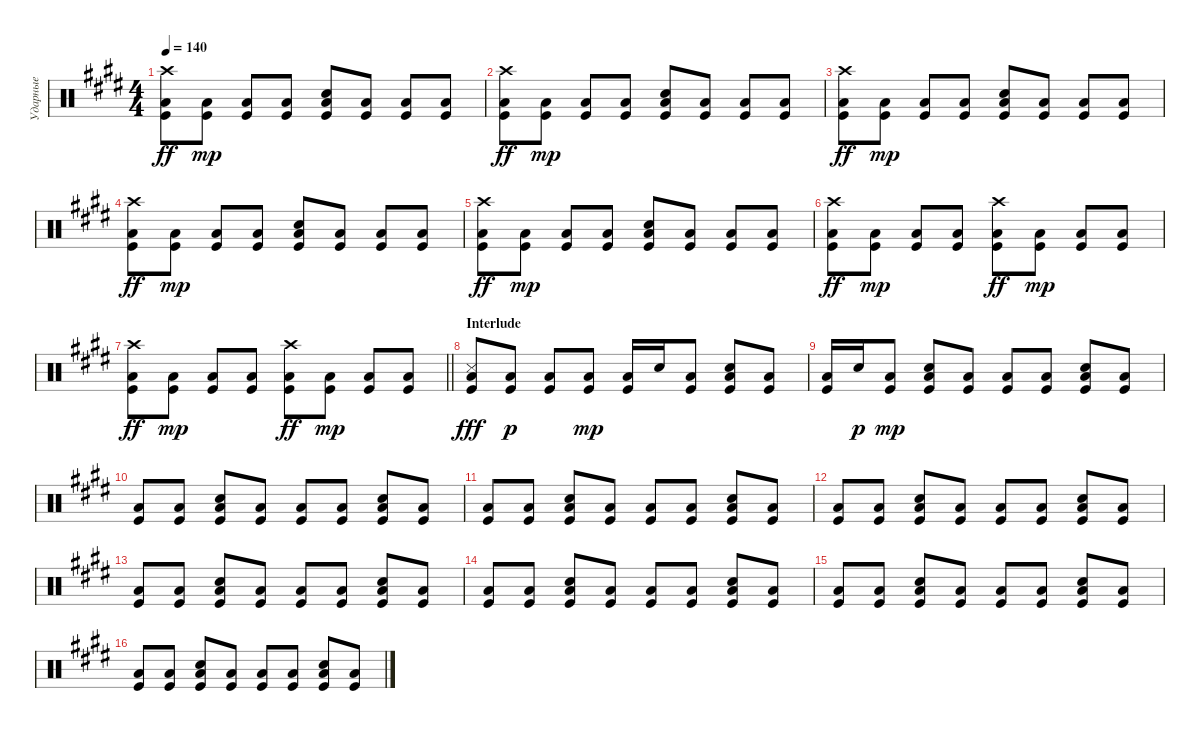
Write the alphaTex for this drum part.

\track ("Ударные" "Ударные") {instrument percussion}
\staff {score}
\articulation defaults
\ts (4 4)
\tempo 140
\clef neutral
\ks c#minor
("Kick (hit)" "Low Floor Tom (hit)" "Crash high (hit)").8{dy ff} ("Kick (hit)" "Low Floor Tom (hit)").8{dy mp} ("Kick (hit)" "Low Floor Tom (hit)").8 ("Kick (hit)" "Low Floor Tom (hit)").8 ("Kick (hit)" "Snare (hit) 2" "Low Floor Tom (hit)").8 ("Kick (hit)" "Low Floor Tom (hit)").8 ("Kick (hit)" "Low Floor Tom (hit)").8 ("Kick (hit)" "Low Floor Tom (hit)").8 |
("Kick (hit)" "Low Floor Tom (hit)" "Crash high (hit)").8{dy ff} ("Kick (hit)" "Low Floor Tom (hit)").8{dy mp} ("Kick (hit)" "Low Floor Tom (hit)").8 ("Kick (hit)" "Low Floor Tom (hit)").8 ("Kick (hit)" "Snare (hit) 2" "Low Floor Tom (hit)").8 ("Kick (hit)" "Low Floor Tom (hit)").8 ("Kick (hit)" "Low Floor Tom (hit)").8 ("Kick (hit)" "Low Floor Tom (hit)").8 |
("Kick (hit)" "Low Floor Tom (hit)" "Crash high (hit)").8{dy ff} ("Kick (hit)" "Low Floor Tom (hit)").8{dy mp} ("Kick (hit)" "Low Floor Tom (hit)").8 ("Kick (hit)" "Low Floor Tom (hit)").8 ("Kick (hit)" "Snare (hit) 2" "Low Floor Tom (hit)").8 ("Kick (hit)" "Low Floor Tom (hit)").8 ("Kick (hit)" "Low Floor Tom (hit)").8 ("Kick (hit)" "Low Floor Tom (hit)").8 |
("Kick (hit)" "Low Floor Tom (hit)" "Crash high (hit)").8{dy ff} ("Kick (hit)" "Low Floor Tom (hit)").8{dy mp} ("Kick (hit)" "Low Floor Tom (hit)").8 ("Kick (hit)" "Low Floor Tom (hit)").8 ("Kick (hit)" "Snare (hit) 2" "Low Floor Tom (hit)").8 ("Kick (hit)" "Low Floor Tom (hit)").8 ("Kick (hit)" "Low Floor Tom (hit)").8 ("Kick (hit)" "Low Floor Tom (hit)").8 |
("Kick (hit)" "Low Floor Tom (hit)" "Crash high (hit)").8{dy ff} ("Kick (hit)" "Low Floor Tom (hit)").8{dy mp} ("Kick (hit)" "Low Floor Tom (hit)").8 ("Kick (hit)" "Low Floor Tom (hit)").8 ("Kick (hit)" "Snare (hit) 2" "Low Floor Tom (hit)").8 ("Kick (hit)" "Low Floor Tom (hit)").8 ("Kick (hit)" "Low Floor Tom (hit)").8 ("Kick (hit)" "Low Floor Tom (hit)").8 |
("Kick (hit)" "Low Floor Tom (hit)" "Crash high (hit)").8{dy ff} ("Kick (hit)" "Low Floor Tom (hit)").8{dy mp} ("Kick (hit)" "Low Floor Tom (hit)").8 ("Kick (hit)" "Low Floor Tom (hit)").8 ("Kick (hit)" "Crash high (hit)" "Low Floor Tom (hit)").8{dy ff} ("Kick (hit)" "Low Floor Tom (hit)").8{dy mp} ("Kick (hit)" "Low Floor Tom (hit)").8 ("Kick (hit)" "Low Floor Tom (hit)").8 |
\barLineRight lightlight
("Kick (hit)" "Low Floor Tom (hit)" "Crash high (hit)").8{dy ff} ("Kick (hit)" "Low Floor Tom (hit)").8{dy mp} ("Kick (hit)" "Low Floor Tom (hit)").8 ("Kick (hit)" "Low Floor Tom (hit)").8 ("Kick (hit)" "Crash high (hit)" "Low Floor Tom (hit)").8{dy ff} ("Kick (hit)" "Low Floor Tom (hit)").8{dy mp} ("Kick (hit)" "Low Floor Tom (hit)").8 ("Kick (hit)" "Low Floor Tom (hit)").8 |
\section ("" "Interlude")
("Kick (hit)" "Low Floor Tom (hit)" "Snare (side stick) 3").8{dy fff} ("Kick (hit)" "Low Floor Tom (hit)").8{dy p} ("Kick (hit)" "Low Floor Tom (hit)").8 ("Kick (hit)" "Low Floor Tom (hit)").8{dy mp} ("Kick (hit)" "Low Floor Tom (hit)").16 "Snare (hit) 2".16 ("Kick (hit)" "Low Floor Tom (hit)").8 ("Kick (hit)" "Low Floor Tom (hit)" "Snare (hit) 2").8 ("Kick (hit)" "Low Floor Tom (hit)").8 |
("Kick (hit)" "Low Floor Tom (hit)").16 "Snare (hit) 2".16{dy p} ("Kick (hit)" "Low Floor Tom (hit)").8{dy mp} ("Kick (hit)" "Low Floor Tom (hit)" "Snare (hit) 2").8 ("Kick (hit)" "Low Floor Tom (hit)").8 ("Kick (hit)" "Low Floor Tom (hit)").8 ("Kick (hit)" "Low Floor Tom (hit)").8 ("Kick (hit)" "Low Floor Tom (hit)" "Snare (hit) 2").8 ("Kick (hit)" "Low Floor Tom (hit)").8 |
("Kick (hit)" "Low Floor Tom (hit)").8 ("Kick (hit)" "Low Floor Tom (hit)").8 ("Kick (hit)" "Low Floor Tom (hit)" "Snare (hit) 2").8 ("Kick (hit)" "Low Floor Tom (hit)").8 ("Kick (hit)" "Low Floor Tom (hit)").8 ("Kick (hit)" "Low Floor Tom (hit)").8 ("Kick (hit)" "Low Floor Tom (hit)" "Snare (hit) 2").8 ("Kick (hit)" "Low Floor Tom (hit)").8 |
("Kick (hit)" "Low Floor Tom (hit)").8 ("Kick (hit)" "Low Floor Tom (hit)").8 ("Kick (hit)" "Low Floor Tom (hit)" "Snare (hit) 2").8 ("Kick (hit)" "Low Floor Tom (hit)").8 ("Kick (hit)" "Low Floor Tom (hit)").8 ("Kick (hit)" "Low Floor Tom (hit)").8 ("Kick (hit)" "Low Floor Tom (hit)" "Snare (hit) 2").8 ("Kick (hit)" "Low Floor Tom (hit)").8 |
("Kick (hit)" "Low Floor Tom (hit)").8 ("Kick (hit)" "Low Floor Tom (hit)").8 ("Kick (hit)" "Low Floor Tom (hit)" "Snare (hit) 2").8 ("Kick (hit)" "Low Floor Tom (hit)").8 ("Kick (hit)" "Low Floor Tom (hit)").8 ("Kick (hit)" "Low Floor Tom (hit)").8 ("Kick (hit)" "Low Floor Tom (hit)" "Snare (hit) 2").8 ("Kick (hit)" "Low Floor Tom (hit)").8 |
("Kick (hit)" "Low Floor Tom (hit)").8 ("Kick (hit)" "Low Floor Tom (hit)").8 ("Kick (hit)" "Low Floor Tom (hit)" "Snare (hit) 2").8 ("Kick (hit)" "Low Floor Tom (hit)").8 ("Kick (hit)" "Low Floor Tom (hit)").8 ("Kick (hit)" "Low Floor Tom (hit)").8 ("Kick (hit)" "Low Floor Tom (hit)" "Snare (hit) 2").8 ("Kick (hit)" "Low Floor Tom (hit)").8 |
("Kick (hit)" "Low Floor Tom (hit)").8 ("Kick (hit)" "Low Floor Tom (hit)").8 ("Kick (hit)" "Low Floor Tom (hit)" "Snare (hit) 2").8 ("Kick (hit)" "Low Floor Tom (hit)").8 ("Kick (hit)" "Low Floor Tom (hit)").8 ("Kick (hit)" "Low Floor Tom (hit)").8 ("Kick (hit)" "Low Floor Tom (hit)" "Snare (hit) 2").8 ("Kick (hit)" "Low Floor Tom (hit)").8 |
("Kick (hit)" "Low Floor Tom (hit)").8 ("Kick (hit)" "Low Floor Tom (hit)").8 ("Kick (hit)" "Low Floor Tom (hit)" "Snare (hit) 2").8 ("Kick (hit)" "Low Floor Tom (hit)").8 ("Kick (hit)" "Low Floor Tom (hit)").8 ("Kick (hit)" "Low Floor Tom (hit)").8 ("Kick (hit)" "Low Floor Tom (hit)" "Snare (hit) 2").8 ("Kick (hit)" "Low Floor Tom (hit)").8 |
("Kick (hit)" "Low Floor Tom (hit)").8 ("Kick (hit)" "Low Floor Tom (hit)").8 ("Kick (hit)" "Low Floor Tom (hit)" "Snare (hit) 2").8 ("Kick (hit)" "Low Floor Tom (hit)").8 ("Kick (hit)" "Low Floor Tom (hit)").8 ("Kick (hit)" "Low Floor Tom (hit)").8 ("Kick (hit)" "Low Floor Tom (hit)" "Snare (hit) 2").8 ("Kick (hit)" "Low Floor Tom (hit)").8
